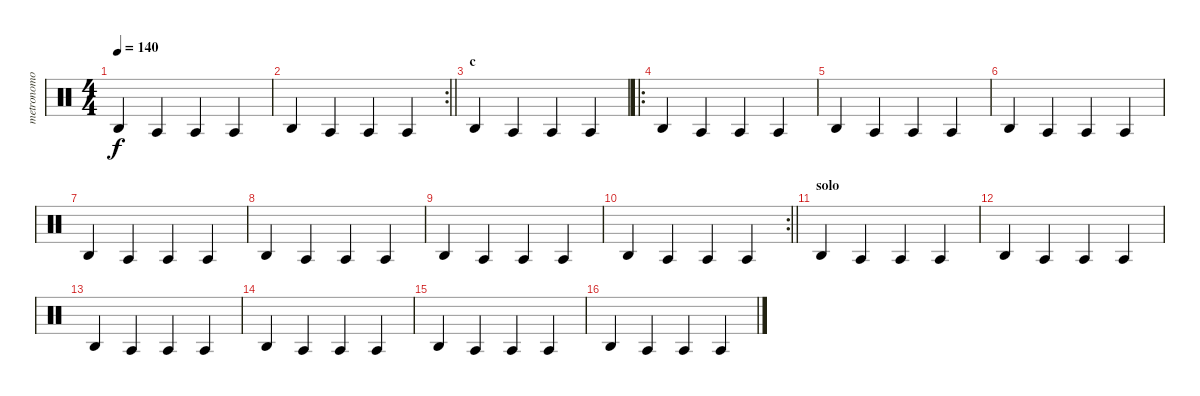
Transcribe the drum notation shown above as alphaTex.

\track ("metronomo" "metronomo") {instrument percussion}
\staff {score}
\articulation defaults
\ts (4 4)
\tempo 140
\clef neutral
\ks c "Agogo high (hit)".4{dy f} "Agogo tow (hit)".4 "Agogo tow (hit)".4 "Agogo tow (hit)".4
|
\rc 2
\barLineRight lightlight "Agogo high (hit)".4 "Agogo tow (hit)".4 "Agogo tow (hit)".4 "Agogo tow (hit)".4
|
\section ("" "c")
"Agogo high (hit)".4 "Agogo tow (hit)".4 "Agogo tow (hit)".4 "Agogo tow (hit)".4 |
\ro "Agogo high (hit)".4 "Agogo tow (hit)".4 "Agogo tow (hit)".4 "Agogo tow (hit)".4
|
"Agogo high (hit)".4 "Agogo tow (hit)".4 "Agogo tow (hit)".4 "Agogo tow (hit)".4 |
"Agogo high (hit)".4 "Agogo tow (hit)".4 "Agogo tow (hit)".4 "Agogo tow (hit)".4 |
"Agogo high (hit)".4 "Agogo tow (hit)".4 "Agogo tow (hit)".4 "Agogo tow (hit)".4 |
"Agogo high (hit)".4 "Agogo tow (hit)".4 "Agogo tow (hit)".4 "Agogo tow (hit)".4 |
"Agogo high (hit)".4 "Agogo tow (hit)".4 "Agogo tow (hit)".4 "Agogo tow (hit)".4 |
\rc 2
\barLineRight lightlight "Agogo high (hit)".4 "Agogo tow (hit)".4 "Agogo tow (hit)".4 "Agogo tow (hit)".4
|
\section ("" "solo")
"Agogo high (hit)".4 "Agogo tow (hit)".4 "Agogo tow (hit)".4 "Agogo tow (hit)".4 |
"Agogo high (hit)".4 "Agogo tow (hit)".4 "Agogo tow (hit)".4 "Agogo tow (hit)".4 |
"Agogo high (hit)".4 "Agogo tow (hit)".4 "Agogo tow (hit)".4 "Agogo tow (hit)".4 |
"Agogo high (hit)".4 "Agogo tow (hit)".4 "Agogo tow (hit)".4 "Agogo tow (hit)".4 |
"Agogo high (hit)".4 "Agogo tow (hit)".4 "Agogo tow (hit)".4 "Agogo tow (hit)".4 |
"Agogo high (hit)".4 "Agogo tow (hit)".4 "Agogo tow (hit)".4 "Agogo tow (hit)".4
